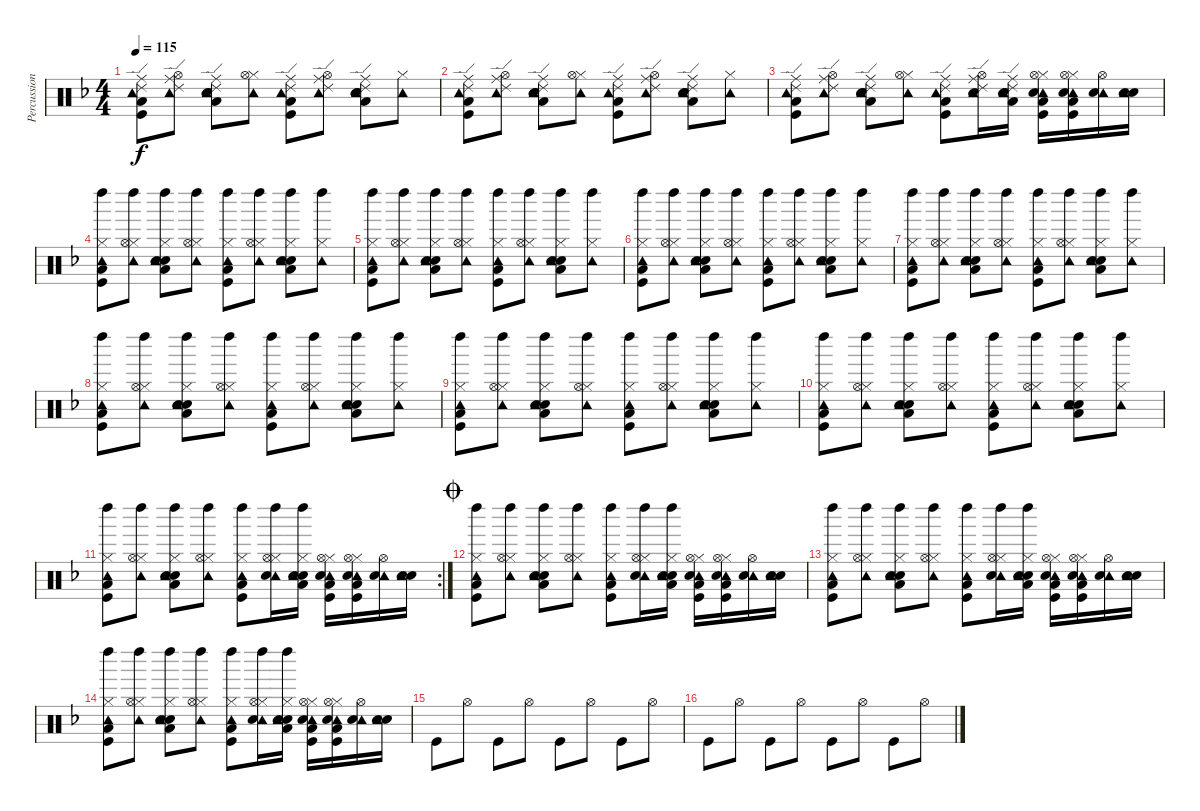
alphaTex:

\track ("Percussion" "Percussion") {instrument percussion}
\staff {score}
\articulation defaults
\ts (4 4)
\tempo 115
\clef neutral
\ks dminor
("Ride (middle)" "Ride (edge) 2" "Tambourine (hit)" "Kick (hit)" "Low Floor Tom (hit)").8{dy f} ("Ride (middle)" "Ride (edge) 2" "Hi-Hat (open)" "Tambourine (hit)").8 ("Ride (middle)" "Ride (edge) 2" "Electric Snare (hit)" "Tambourine (hit)" "Snare (hit) 2" "Low Tom (hit)").8 ("Hi-Hat (closed)" "Hi-Hat (open)" "Tambourine (hit)").8 ("Ride (middle)" "Ride (edge) 2" "Tambourine (hit)" "Kick (hit)" "Low Floor Tom (hit)").8 ("Ride (middle)" "Ride (edge) 2" "Hi-Hat (open)" "Tambourine (hit)").8 ("Ride (middle)" "Ride (edge) 2" "Electric Snare (hit)" "Tambourine (hit)" "Snare (hit) 2" "Low Tom (hit)").8 ("Hi-Hat (closed)" "Tambourine (hit)").8 |
("Ride (middle)" "Ride (edge) 2" "Tambourine (hit)" "Kick (hit)" "Low Floor Tom (hit)").8 ("Ride (middle)" "Ride (edge) 2" "Hi-Hat (open)" "Tambourine (hit)").8 ("Ride (middle)" "Ride (edge) 2" "Electric Snare (hit)" "Tambourine (hit)" "Snare (hit) 2" "Low Tom (hit)").8 ("Hi-Hat (closed)" "Hi-Hat (open)" "Tambourine (hit)").8 ("Ride (middle)" "Ride (edge) 2" "Tambourine (hit)" "Kick (hit)" "Low Floor Tom (hit)").8 ("Ride (middle)" "Ride (edge) 2" "Hi-Hat (open)" "Tambourine (hit)").8 ("Ride (middle)" "Ride (edge) 2" "Electric Snare (hit)" "Tambourine (hit)" "Snare (hit) 2" "Low Tom (hit)").8 ("Hi-Hat (closed)" "Tambourine (hit)").8 |
("Ride (middle)" "Ride (edge) 2" "Tambourine (hit)" "Kick (hit)" "Low Floor Tom (hit)").8 ("Ride (middle)" "Ride (edge) 2" "Hi-Hat (open)" "Tambourine (hit)").8 ("Ride (middle)" "Ride (edge) 2" "Electric Snare (hit)" "Tambourine (hit)" "Snare (hit) 2" "Low Tom (hit)").8 ("Hi-Hat (closed)" "Hi-Hat (open)" "Tambourine (hit)").8 ("Ride (middle)" "Ride (edge) 2" "Tambourine (hit)" "Kick (hit)" "Low Floor Tom (hit)").8 ("Ride (middle)" "Ride (edge) 2" "Hi-Hat (open)" "Tambourine (hit)" "Snare (hit) 2").16 ("Ride (middle)" "Ride (edge) 2" "Electric Snare (hit)" "Tambourine (hit)" "Snare (hit) 2" "Low Tom (hit)").16 ("Kick (hit)" "Hi-Hat (closed)" "Hi-Hat (open)" "Tambourine (hit)" "Electric Snare (hit)" "Low Floor Tom (hit)").16 ("Kick (hit)" "Hi-Hat (closed)" "Hi-Hat (open)" "Tambourine (hit)" "Electric Snare (hit)" "Low Floor Tom (hit)").16 ("Hi-Hat (open)" "Tambourine (hit)" "Snare (hit) 2").16 ("Electric Snare (hit)" "Tambourine (hit)" "Snare (hit) 2").16 |
("Left Maraca (hit)" "Hi-Hat (closed)" "Tambourine (hit)" "Kick (hit)" "Low Floor Tom (hit)").8 ("Left Maraca (hit)" "Hi-Hat (closed)" "Hi-Hat (open)" "Tambourine (hit)").8 ("Left Maraca (hit)" "Hi-Hat (closed)" "Electric Snare (hit)" "Tambourine (hit)" "Snare (hit) 2" "Low Tom (hit)").8 ("Left Maraca (hit)" "Hi-Hat (closed)" "Hi-Hat (open)" "Tambourine (hit)").8 ("Left Maraca (hit)" "Hi-Hat (closed)" "Tambourine (hit)" "Kick (hit)" "Low Floor Tom (hit)").8 ("Left Maraca (hit)" "Hi-Hat (closed)" "Hi-Hat (open)" "Tambourine (hit)").8 ("Left Maraca (hit)" "Hi-Hat (closed)" "Electric Snare (hit)" "Tambourine (hit)" "Snare (hit) 2" "Low Tom (hit)").8 ("Left Maraca (hit)" "Hi-Hat (closed)" "Tambourine (hit)").8 |
("Left Maraca (hit)" "Hi-Hat (closed)" "Tambourine (hit)" "Kick (hit)" "Low Floor Tom (hit)").8 ("Left Maraca (hit)" "Hi-Hat (closed)" "Hi-Hat (open)" "Tambourine (hit)").8 ("Left Maraca (hit)" "Hi-Hat (closed)" "Electric Snare (hit)" "Tambourine (hit)" "Snare (hit) 2" "Low Tom (hit)").8 ("Left Maraca (hit)" "Hi-Hat (closed)" "Hi-Hat (open)" "Tambourine (hit)").8 ("Left Maraca (hit)" "Hi-Hat (closed)" "Tambourine (hit)" "Kick (hit)" "Low Floor Tom (hit)").8 ("Left Maraca (hit)" "Hi-Hat (closed)" "Hi-Hat (open)" "Tambourine (hit)").8 ("Left Maraca (hit)" "Hi-Hat (closed)" "Electric Snare (hit)" "Tambourine (hit)" "Snare (hit) 2" "Low Tom (hit)").8 ("Left Maraca (hit)" "Hi-Hat (closed)" "Tambourine (hit)").8 |
("Left Maraca (hit)" "Hi-Hat (closed)" "Tambourine (hit)" "Kick (hit)" "Low Floor Tom (hit)").8 ("Left Maraca (hit)" "Hi-Hat (closed)" "Hi-Hat (open)" "Tambourine (hit)").8 ("Left Maraca (hit)" "Hi-Hat (closed)" "Electric Snare (hit)" "Tambourine (hit)" "Snare (hit) 2" "Low Tom (hit)").8 ("Left Maraca (hit)" "Hi-Hat (closed)" "Hi-Hat (open)" "Tambourine (hit)").8 ("Left Maraca (hit)" "Hi-Hat (closed)" "Tambourine (hit)" "Kick (hit)" "Low Floor Tom (hit)").8 ("Left Maraca (hit)" "Hi-Hat (closed)" "Hi-Hat (open)" "Tambourine (hit)").8 ("Left Maraca (hit)" "Hi-Hat (closed)" "Electric Snare (hit)" "Tambourine (hit)" "Snare (hit) 2" "Low Tom (hit)").8 ("Left Maraca (hit)" "Hi-Hat (closed)" "Tambourine (hit)").8 |
("Left Maraca (hit)" "Hi-Hat (closed)" "Tambourine (hit)" "Kick (hit)" "Low Floor Tom (hit)").8 ("Left Maraca (hit)" "Hi-Hat (closed)" "Hi-Hat (open)" "Tambourine (hit)").8 ("Left Maraca (hit)" "Hi-Hat (closed)" "Electric Snare (hit)" "Tambourine (hit)" "Snare (hit) 2" "Low Tom (hit)").8 ("Left Maraca (hit)" "Hi-Hat (closed)" "Hi-Hat (open)" "Tambourine (hit)").8 ("Left Maraca (hit)" "Hi-Hat (closed)" "Tambourine (hit)" "Kick (hit)" "Low Floor Tom (hit)").8 ("Left Maraca (hit)" "Hi-Hat (closed)" "Hi-Hat (open)" "Tambourine (hit)").8 ("Left Maraca (hit)" "Hi-Hat (closed)" "Electric Snare (hit)" "Tambourine (hit)" "Snare (hit) 2" "Low Tom (hit)").8 ("Left Maraca (hit)" "Hi-Hat (closed)" "Tambourine (hit)").8 |
("Left Maraca (hit)" "Hi-Hat (closed)" "Tambourine (hit)" "Kick (hit)" "Low Floor Tom (hit)").8 ("Left Maraca (hit)" "Hi-Hat (closed)" "Hi-Hat (open)" "Tambourine (hit)").8 ("Left Maraca (hit)" "Hi-Hat (closed)" "Electric Snare (hit)" "Tambourine (hit)" "Snare (hit) 2" "Low Tom (hit)").8 ("Left Maraca (hit)" "Hi-Hat (closed)" "Hi-Hat (open)" "Tambourine (hit)").8 ("Left Maraca (hit)" "Hi-Hat (closed)" "Tambourine (hit)" "Kick (hit)" "Low Floor Tom (hit)").8 ("Left Maraca (hit)" "Hi-Hat (closed)" "Hi-Hat (open)" "Tambourine (hit)").8 ("Left Maraca (hit)" "Hi-Hat (closed)" "Electric Snare (hit)" "Tambourine (hit)" "Snare (hit) 2" "Low Tom (hit)").8 ("Left Maraca (hit)" "Hi-Hat (closed)" "Tambourine (hit)").8 |
("Left Maraca (hit)" "Hi-Hat (closed)" "Tambourine (hit)" "Kick (hit)" "Low Floor Tom (hit)").8 ("Left Maraca (hit)" "Hi-Hat (closed)" "Hi-Hat (open)" "Tambourine (hit)").8 ("Left Maraca (hit)" "Hi-Hat (closed)" "Electric Snare (hit)" "Tambourine (hit)" "Snare (hit) 2" "Low Tom (hit)").8 ("Left Maraca (hit)" "Hi-Hat (closed)" "Hi-Hat (open)" "Tambourine (hit)").8 ("Left Maraca (hit)" "Hi-Hat (closed)" "Tambourine (hit)" "Kick (hit)" "Low Floor Tom (hit)").8 ("Left Maraca (hit)" "Hi-Hat (closed)" "Hi-Hat (open)" "Tambourine (hit)").8 ("Left Maraca (hit)" "Hi-Hat (closed)" "Electric Snare (hit)" "Tambourine (hit)" "Snare (hit) 2" "Low Tom (hit)").8 ("Left Maraca (hit)" "Hi-Hat (closed)" "Tambourine (hit)").8 |
("Left Maraca (hit)" "Hi-Hat (closed)" "Tambourine (hit)" "Kick (hit)" "Low Floor Tom (hit)").8 ("Left Maraca (hit)" "Hi-Hat (closed)" "Hi-Hat (open)" "Tambourine (hit)").8 ("Left Maraca (hit)" "Hi-Hat (closed)" "Electric Snare (hit)" "Tambourine (hit)" "Snare (hit) 2" "Low Tom (hit)").8 ("Left Maraca (hit)" "Hi-Hat (closed)" "Hi-Hat (open)" "Tambourine (hit)").8 ("Left Maraca (hit)" "Hi-Hat (closed)" "Tambourine (hit)" "Kick (hit)" "Low Floor Tom (hit)").8 ("Left Maraca (hit)" "Hi-Hat (closed)" "Hi-Hat (open)" "Tambourine (hit)").8 ("Left Maraca (hit)" "Hi-Hat (closed)" "Electric Snare (hit)" "Tambourine (hit)" "Snare (hit) 2" "Low Tom (hit)").8 ("Left Maraca (hit)" "Hi-Hat (closed)" "Tambourine (hit)").8 |
\rc 2
("Left Maraca (hit)" "Hi-Hat (closed)" "Tambourine (hit)" "Kick (hit)" "Low Floor Tom (hit)").8 ("Left Maraca (hit)" "Hi-Hat (closed)" "Hi-Hat (open)" "Tambourine (hit)").8 ("Left Maraca (hit)" "Hi-Hat (closed)" "Electric Snare (hit)" "Tambourine (hit)" "Snare (hit) 2" "Low Tom (hit)").8 ("Left Maraca (hit)" "Hi-Hat (closed)" "Hi-Hat (open)" "Tambourine (hit)").8 ("Left Maraca (hit)" "Hi-Hat (closed)" "Tambourine (hit)" "Kick (hit)" "Low Floor Tom (hit)").8 ("Left Maraca (hit)" "Hi-Hat (closed)" "Hi-Hat (open)" "Tambourine (hit)" "Snare (hit) 2").16 ("Left Maraca (hit)" "Hi-Hat (closed)" "Electric Snare (hit)" "Tambourine (hit)" "Snare (hit) 2" "Low Tom (hit)").16 ("Kick (hit)" "Hi-Hat (closed)" "Hi-Hat (open)" "Tambourine (hit)" "Electric Snare (hit)" "Low Floor Tom (hit)").16 ("Kick (hit)" "Hi-Hat (closed)" "Hi-Hat (open)" "Tambourine (hit)" "Electric Snare (hit)" "Low Floor Tom (hit)").16 ("Hi-Hat (open)" "Tambourine (hit)" "Snare (hit) 2").16 ("Electric Snare (hit)" "Tambourine (hit)" "Snare (hit) 2").16 |
\jump coda
("Left Maraca (hit)" "Hi-Hat (closed)" "Tambourine (hit)" "Kick (hit)" "Low Floor Tom (hit)").8 ("Left Maraca (hit)" "Hi-Hat (closed)" "Hi-Hat (open)" "Tambourine (hit)").8 ("Left Maraca (hit)" "Hi-Hat (closed)" "Electric Snare (hit)" "Tambourine (hit)" "Snare (hit) 2" "Low Tom (hit)").8 ("Left Maraca (hit)" "Hi-Hat (closed)" "Hi-Hat (open)" "Tambourine (hit)").8 ("Left Maraca (hit)" "Hi-Hat (closed)" "Tambourine (hit)" "Kick (hit)" "Low Floor Tom (hit)").8 ("Left Maraca (hit)" "Hi-Hat (closed)" "Hi-Hat (open)" "Tambourine (hit)" "Snare (hit) 2").16 ("Left Maraca (hit)" "Hi-Hat (closed)" "Electric Snare (hit)" "Tambourine (hit)" "Snare (hit) 2" "Low Tom (hit)").16 ("Kick (hit)" "Hi-Hat (closed)" "Hi-Hat (open)" "Tambourine (hit)" "Electric Snare (hit)" "Low Floor Tom (hit)").16 ("Kick (hit)" "Hi-Hat (closed)" "Hi-Hat (open)" "Tambourine (hit)" "Electric Snare (hit)" "Low Floor Tom (hit)").16 ("Hi-Hat (open)" "Tambourine (hit)" "Snare (hit) 2").16 ("Electric Snare (hit)" "Tambourine (hit)" "Snare (hit) 2").16 |
("Left Maraca (hit)" "Hi-Hat (closed)" "Tambourine (hit)" "Kick (hit)" "Low Floor Tom (hit)").8 ("Left Maraca (hit)" "Hi-Hat (closed)" "Hi-Hat (open)" "Tambourine (hit)").8 ("Left Maraca (hit)" "Hi-Hat (closed)" "Electric Snare (hit)" "Tambourine (hit)" "Snare (hit) 2" "Low Tom (hit)").8 ("Left Maraca (hit)" "Hi-Hat (closed)" "Hi-Hat (open)" "Tambourine (hit)").8 ("Left Maraca (hit)" "Hi-Hat (closed)" "Tambourine (hit)" "Kick (hit)" "Low Floor Tom (hit)").8 ("Left Maraca (hit)" "Hi-Hat (closed)" "Hi-Hat (open)" "Tambourine (hit)" "Snare (hit) 2").16 ("Left Maraca (hit)" "Hi-Hat (closed)" "Electric Snare (hit)" "Tambourine (hit)" "Snare (hit) 2" "Low Tom (hit)").16 ("Kick (hit)" "Hi-Hat (closed)" "Hi-Hat (open)" "Tambourine (hit)" "Electric Snare (hit)" "Low Floor Tom (hit)").16 ("Kick (hit)" "Hi-Hat (closed)" "Hi-Hat (open)" "Tambourine (hit)" "Electric Snare (hit)" "Low Floor Tom (hit)").16 ("Hi-Hat (open)" "Tambourine (hit)" "Snare (hit) 2").16 ("Electric Snare (hit)" "Tambourine (hit)" "Snare (hit) 2").16 |
("Left Maraca (hit)" "Hi-Hat (closed)" "Tambourine (hit)" "Kick (hit)" "Low Floor Tom (hit)").8 ("Left Maraca (hit)" "Hi-Hat (closed)" "Hi-Hat (open)" "Tambourine (hit)").8 ("Left Maraca (hit)" "Hi-Hat (closed)" "Electric Snare (hit)" "Tambourine (hit)" "Snare (hit) 2" "Low Tom (hit)").8 ("Left Maraca (hit)" "Hi-Hat (closed)" "Hi-Hat (open)" "Tambourine (hit)").8 ("Left Maraca (hit)" "Hi-Hat (closed)" "Tambourine (hit)" "Kick (hit)" "Low Floor Tom (hit)").8 ("Left Maraca (hit)" "Hi-Hat (closed)" "Hi-Hat (open)" "Tambourine (hit)" "Snare (hit) 2").16 ("Left Maraca (hit)" "Hi-Hat (closed)" "Electric Snare (hit)" "Tambourine (hit)" "Snare (hit) 2" "Low Tom (hit)").16 ("Kick (hit)" "Hi-Hat (closed)" "Hi-Hat (open)" "Tambourine (hit)" "Electric Snare (hit)" "Low Floor Tom (hit)").16 ("Kick (hit)" "Hi-Hat (closed)" "Hi-Hat (open)" "Tambourine (hit)" "Electric Snare (hit)" "Low Floor Tom (hit)").16 ("Hi-Hat (open)" "Tambourine (hit)" "Snare (hit) 2").16 ("Electric Snare (hit)" "Tambourine (hit)" "Snare (hit) 2").16 |
"Kick (hit)".8 "Hi-Hat (open)".8 "Kick (hit)".8 "Hi-Hat (open)".8 "Kick (hit)".8 "Hi-Hat (open)".8 "Kick (hit)".8 "Hi-Hat (open)".8 |
"Kick (hit)".8 "Hi-Hat (open)".8 "Kick (hit)".8 "Hi-Hat (open)".8 "Kick (hit)".8 "Hi-Hat (open)".8 "Kick (hit)".8 "Hi-Hat (open)".8
